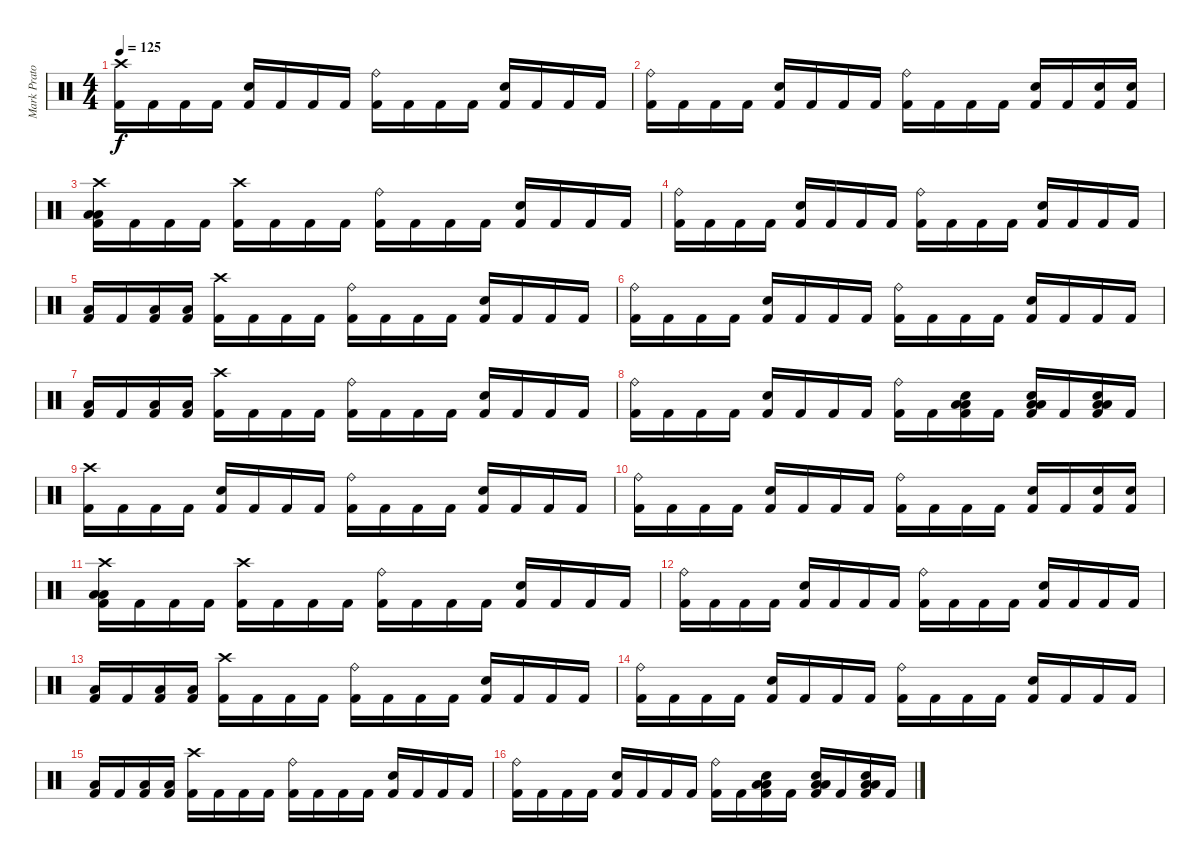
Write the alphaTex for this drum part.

\track ("Mark Prator" "Mark Prato") {instrument percussion}
\staff {score}
\articulation defaults
\ts (4 4)
\tempo 125
\clef neutral
\ks c
("Crash high (hit)" "Kick (hit) 2").16{dy f} "Kick (hit) 2".16 "Kick (hit) 2".16 "Kick (hit) 2".16 ("Electric Snare (hit)" "Kick (hit) 2").16 "Kick (hit) 2".16 "Kick (hit) 2".16 "Kick (hit) 2".16 ("Ride (bell)" "Kick (hit) 2").16 "Kick (hit) 2".16 "Kick (hit) 2".16 "Kick (hit) 2".16 ("Electric Snare (hit)" "Kick (hit) 2").16 "Kick (hit) 2".16 "Kick (hit) 2".16 "Kick (hit) 2".16 |
("Ride (bell)" "Kick (hit) 2").16 "Kick (hit) 2".16 "Kick (hit) 2".16 "Kick (hit) 2".16 ("Electric Snare (hit)" "Kick (hit) 2").16 "Kick (hit) 2".16 "Kick (hit) 2".16 "Kick (hit) 2".16 ("Ride (bell)" "Kick (hit) 2").16 "Kick (hit) 2".16 "Kick (hit) 2".16 "Kick (hit) 2".16 ("Electric Snare (hit)" "Kick (hit) 2").16 "Kick (hit) 2".16 ("Electric Snare (hit)" "Kick (hit) 2").16 ("Electric Snare (hit)" "Kick (hit) 2").16 |
("Crash high (hit)" "Low Floor Tom (hit)" "Low Floor Tom (hit)" "Kick (hit) 2").16 "Kick (hit) 2".16 "Kick (hit) 2".16 "Kick (hit) 2".16 ("Crash high (hit)" "Kick (hit) 2").16 "Kick (hit) 2".16 "Kick (hit) 2".16 "Kick (hit) 2".16 ("Ride (bell)" "Kick (hit) 2").16 "Kick (hit) 2".16 "Kick (hit) 2".16 "Kick (hit) 2".16 ("Electric Snare (hit)" "Kick (hit) 2").16 "Kick (hit) 2".16 "Kick (hit) 2".16 "Kick (hit) 2".16 |
("Ride (bell)" "Kick (hit) 2").16 "Kick (hit) 2".16 "Kick (hit) 2".16 "Kick (hit) 2".16 ("Electric Snare (hit)" "Kick (hit) 2").16 "Kick (hit) 2".16 "Kick (hit) 2".16 "Kick (hit) 2".16 ("Ride (bell)" "Kick (hit) 2").16 "Kick (hit) 2".16 "Kick (hit) 2".16 "Kick (hit) 2".16 ("Electric Snare (hit)" "Kick (hit) 2").16 "Kick (hit) 2".16 "Kick (hit) 2".16 "Kick (hit) 2".16 |
("Low Tom (hit)" "Kick (hit) 2").16 "Kick (hit) 2".16 ("Low Tom (hit)" "Kick (hit) 2").16 ("Low Tom (hit)" "Kick (hit) 2").16 ("Crash high (hit)" "Kick (hit) 2").16 "Kick (hit) 2".16 "Kick (hit) 2".16 "Kick (hit) 2".16 ("Ride (bell)" "Kick (hit) 2").16 "Kick (hit) 2".16 "Kick (hit) 2".16 "Kick (hit) 2".16 ("Electric Snare (hit)" "Kick (hit) 2").16 "Kick (hit) 2".16 "Kick (hit) 2".16 "Kick (hit) 2".16 |
("Ride (bell)" "Kick (hit) 2").16 "Kick (hit) 2".16 "Kick (hit) 2".16 "Kick (hit) 2".16 ("Electric Snare (hit)" "Kick (hit) 2").16 "Kick (hit) 2".16 "Kick (hit) 2".16 "Kick (hit) 2".16 ("Ride (bell)" "Kick (hit) 2").16 "Kick (hit) 2".16 "Kick (hit) 2".16 "Kick (hit) 2".16 ("Electric Snare (hit)" "Kick (hit) 2").16 "Kick (hit) 2".16 "Kick (hit) 2".16 "Kick (hit) 2".16 |
("Low Tom (hit)" "Kick (hit) 2").16 "Kick (hit) 2".16 ("Low Tom (hit)" "Kick (hit) 2").16 ("Low Tom (hit)" "Kick (hit) 2").16 ("Crash high (hit)" "Kick (hit) 2").16 "Kick (hit) 2".16 "Kick (hit) 2".16 "Kick (hit) 2".16 ("Ride (bell)" "Kick (hit) 2").16 "Kick (hit) 2".16 "Kick (hit) 2".16 "Kick (hit) 2".16 ("Electric Snare (hit)" "Kick (hit) 2").16 "Kick (hit) 2".16 "Kick (hit) 2".16 "Kick (hit) 2".16 |
("Ride (bell)" "Kick (hit) 2").16 "Kick (hit) 2".16 "Kick (hit) 2".16 "Kick (hit) 2".16 ("Electric Snare (hit)" "Kick (hit) 2").16 "Kick (hit) 2".16 "Kick (hit) 2".16 "Kick (hit) 2".16 ("Ride (bell)" "Kick (hit) 2").16 "Kick (hit) 2".16 ("Low Floor Tom (hit)" "Low Floor Tom (hit)" "Electric Snare (hit)" "Kick (hit) 2").16 "Kick (hit) 2".16 ("Low Floor Tom (hit)" "Low Floor Tom (hit)" "Electric Snare (hit)" "Kick (hit) 2").16 "Kick (hit) 2".16 ("Low Floor Tom (hit)" "Low Floor Tom (hit)" "Electric Snare (hit)" "Kick (hit) 2").16 "Kick (hit) 2".16 |
("Crash high (hit)" "Kick (hit) 2").16 "Kick (hit) 2".16 "Kick (hit) 2".16 "Kick (hit) 2".16 ("Electric Snare (hit)" "Kick (hit) 2").16 "Kick (hit) 2".16 "Kick (hit) 2".16 "Kick (hit) 2".16 ("Ride (bell)" "Kick (hit) 2").16 "Kick (hit) 2".16 "Kick (hit) 2".16 "Kick (hit) 2".16 ("Electric Snare (hit)" "Kick (hit) 2").16 "Kick (hit) 2".16 "Kick (hit) 2".16 "Kick (hit) 2".16 |
("Ride (bell)" "Kick (hit) 2").16 "Kick (hit) 2".16 "Kick (hit) 2".16 "Kick (hit) 2".16 ("Electric Snare (hit)" "Kick (hit) 2").16 "Kick (hit) 2".16 "Kick (hit) 2".16 "Kick (hit) 2".16 ("Ride (bell)" "Kick (hit) 2").16 "Kick (hit) 2".16 "Kick (hit) 2".16 "Kick (hit) 2".16 ("Electric Snare (hit)" "Kick (hit) 2").16 "Kick (hit) 2".16 ("Electric Snare (hit)" "Kick (hit) 2").16 ("Electric Snare (hit)" "Kick (hit) 2").16 |
("Crash high (hit)" "Low Floor Tom (hit)" "Low Floor Tom (hit)" "Kick (hit) 2").16 "Kick (hit) 2".16 "Kick (hit) 2".16 "Kick (hit) 2".16 ("Crash high (hit)" "Kick (hit) 2").16 "Kick (hit) 2".16 "Kick (hit) 2".16 "Kick (hit) 2".16 ("Ride (bell)" "Kick (hit) 2").16 "Kick (hit) 2".16 "Kick (hit) 2".16 "Kick (hit) 2".16 ("Electric Snare (hit)" "Kick (hit) 2").16 "Kick (hit) 2".16 "Kick (hit) 2".16 "Kick (hit) 2".16 |
("Ride (bell)" "Kick (hit) 2").16 "Kick (hit) 2".16 "Kick (hit) 2".16 "Kick (hit) 2".16 ("Electric Snare (hit)" "Kick (hit) 2").16 "Kick (hit) 2".16 "Kick (hit) 2".16 "Kick (hit) 2".16 ("Ride (bell)" "Kick (hit) 2").16 "Kick (hit) 2".16 "Kick (hit) 2".16 "Kick (hit) 2".16 ("Electric Snare (hit)" "Kick (hit) 2").16 "Kick (hit) 2".16 "Kick (hit) 2".16 "Kick (hit) 2".16 |
("Low Tom (hit)" "Kick (hit) 2").16 "Kick (hit) 2".16 ("Low Tom (hit)" "Kick (hit) 2").16 ("Low Tom (hit)" "Kick (hit) 2").16 ("Crash high (hit)" "Kick (hit) 2").16 "Kick (hit) 2".16 "Kick (hit) 2".16 "Kick (hit) 2".16 ("Ride (bell)" "Kick (hit) 2").16 "Kick (hit) 2".16 "Kick (hit) 2".16 "Kick (hit) 2".16 ("Electric Snare (hit)" "Kick (hit) 2").16 "Kick (hit) 2".16 "Kick (hit) 2".16 "Kick (hit) 2".16 |
("Ride (bell)" "Kick (hit) 2").16 "Kick (hit) 2".16 "Kick (hit) 2".16 "Kick (hit) 2".16 ("Electric Snare (hit)" "Kick (hit) 2").16 "Kick (hit) 2".16 "Kick (hit) 2".16 "Kick (hit) 2".16 ("Ride (bell)" "Kick (hit) 2").16 "Kick (hit) 2".16 "Kick (hit) 2".16 "Kick (hit) 2".16 ("Electric Snare (hit)" "Kick (hit) 2").16 "Kick (hit) 2".16 "Kick (hit) 2".16 "Kick (hit) 2".16 |
("Low Tom (hit)" "Kick (hit) 2").16 "Kick (hit) 2".16 ("Low Tom (hit)" "Kick (hit) 2").16 ("Low Tom (hit)" "Kick (hit) 2").16 ("Crash high (hit)" "Kick (hit) 2").16 "Kick (hit) 2".16 "Kick (hit) 2".16 "Kick (hit) 2".16 ("Ride (bell)" "Kick (hit) 2").16 "Kick (hit) 2".16 "Kick (hit) 2".16 "Kick (hit) 2".16 ("Electric Snare (hit)" "Kick (hit) 2").16 "Kick (hit) 2".16 "Kick (hit) 2".16 "Kick (hit) 2".16 |
("Ride (bell)" "Kick (hit) 2").16 "Kick (hit) 2".16 "Kick (hit) 2".16 "Kick (hit) 2".16 ("Electric Snare (hit)" "Kick (hit) 2").16 "Kick (hit) 2".16 "Kick (hit) 2".16 "Kick (hit) 2".16 ("Ride (bell)" "Kick (hit) 2").16 "Kick (hit) 2".16 ("Low Floor Tom (hit)" "Low Floor Tom (hit)" "Electric Snare (hit)" "Kick (hit) 2").16 "Kick (hit) 2".16 ("Low Floor Tom (hit)" "Low Floor Tom (hit)" "Electric Snare (hit)" "Kick (hit) 2").16 "Kick (hit) 2".16 ("Low Floor Tom (hit)" "Low Floor Tom (hit)" "Electric Snare (hit)" "Kick (hit) 2").16 "Kick (hit) 2".16
